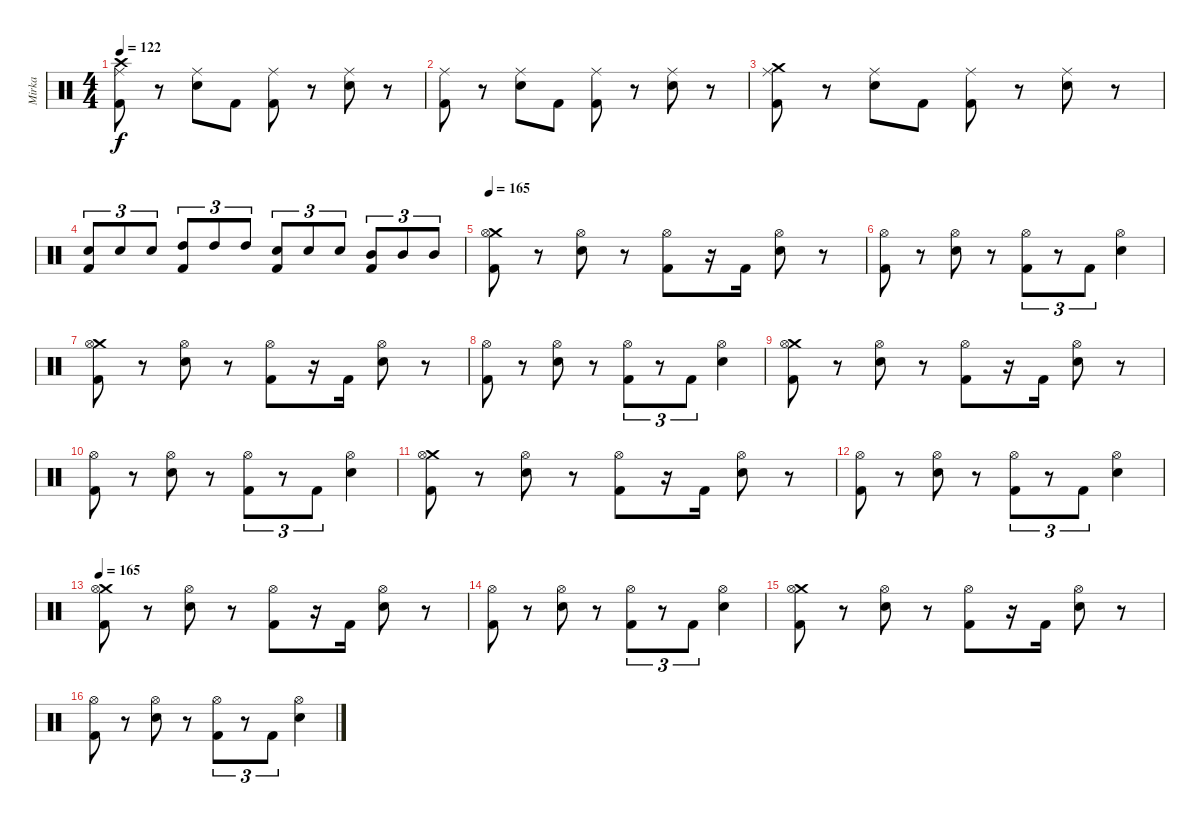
\track ("Mirka" "Mirka") {instrument percussion}
\staff {score}
\articulation defaults
\ts (4 4)
\tempo 122
\clef neutral
\ks c
("Crash high (hit)" "Ride (middle)" "Kick (hit) 2").8{dy f} r.8 ("Ride (middle)" "Electric Snare (hit)").8 "Kick (hit) 2".8 ("Ride (middle)" "Kick (hit) 2").8 r.8 ("Ride (middle)" "Electric Snare (hit)").8 r.8 |
("Ride (middle)" "Kick (hit) 2").8 r.8 ("Ride (middle)" "Electric Snare (hit)").8 "Kick (hit) 2".8 ("Ride (middle)" "Kick (hit) 2").8 r.8 ("Ride (middle)" "Electric Snare (hit)").8 r.8 |
("Crash medium (hit)" "Ride (middle)" "Kick (hit) 2").8 r.8 ("Ride (middle)" "Electric Snare (hit)").8 "Kick (hit) 2".8 ("Ride (middle)" "Kick (hit) 2").8 r.8 ("Ride (middle)" "Electric Snare (hit)").8 r.8 |
("Electric Snare (hit)" "Kick (hit) 2").8{tu (3 2)} "Electric Snare (hit)".8{tu (3 2)} "Electric Snare (hit)".8{tu (3 2)} ("High Tom (hit)" "Kick (hit) 2").8{tu (3 2)} "High Tom (hit)".8{tu (3 2)} "High Tom (hit)".8{tu (3 2)} ("Electric Snare (hit)" "Kick (hit) 2").8{tu (3 2)} "Electric Snare (hit)".8{tu (3 2)} "Electric Snare (hit)".8{tu (3 2)} ("Mid Tom (hit)" "Kick (hit) 2").8{tu (3 2)} "Mid Tom (hit)".8{tu (3 2)} "Mid Tom (hit)".8{tu (3 2)} |
\tempo 165
("Crash medium (hit)" "Hi-Hat (open)" "Kick (hit) 2").8 r.8 ("Hi-Hat (open)" "Electric Snare (hit)").8 r.8 ("Hi-Hat (open)" "Kick (hit) 2").8 r.16 "Kick (hit) 2".16 ("Electric Snare (hit)" "Hi-Hat (open)").8 r.8 |
("Hi-Hat (open)" "Kick (hit) 2").8 r.8 ("Hi-Hat (open)" "Electric Snare (hit)").8 r.8 ("Hi-Hat (open)" "Kick (hit) 2").8{tu (3 2)} r.8{tu (3 2)} "Kick (hit) 2".8{tu (3 2)} ("Hi-Hat (open)" "Electric Snare (hit)").4 |
("Crash medium (hit)" "Hi-Hat (open)" "Kick (hit) 2").8 r.8 ("Hi-Hat (open)" "Electric Snare (hit)").8 r.8 ("Hi-Hat (open)" "Kick (hit) 2").8 r.16 "Kick (hit) 2".16 ("Electric Snare (hit)" "Hi-Hat (open)").8 r.8 |
("Hi-Hat (open)" "Kick (hit) 2").8 r.8 ("Hi-Hat (open)" "Electric Snare (hit)").8 r.8 ("Hi-Hat (open)" "Kick (hit) 2").8{tu (3 2)} r.8{tu (3 2)} "Kick (hit) 2".8{tu (3 2)} ("Hi-Hat (open)" "Electric Snare (hit)").4 |
("Crash medium (hit)" "Hi-Hat (open)" "Kick (hit) 2").8 r.8 ("Hi-Hat (open)" "Electric Snare (hit)").8 r.8 ("Hi-Hat (open)" "Kick (hit) 2").8 r.16 "Kick (hit) 2".16 ("Electric Snare (hit)" "Hi-Hat (open)").8 r.8 |
("Hi-Hat (open)" "Kick (hit) 2").8 r.8 ("Hi-Hat (open)" "Electric Snare (hit)").8 r.8 ("Hi-Hat (open)" "Kick (hit) 2").8{tu (3 2)} r.8{tu (3 2)} "Kick (hit) 2".8{tu (3 2)} ("Hi-Hat (open)" "Electric Snare (hit)").4 |
("Crash medium (hit)" "Hi-Hat (open)" "Kick (hit) 2").8 r.8 ("Hi-Hat (open)" "Electric Snare (hit)").8 r.8 ("Hi-Hat (open)" "Kick (hit) 2").8 r.16 "Kick (hit) 2".16 ("Electric Snare (hit)" "Hi-Hat (open)").8 r.8 |
("Hi-Hat (open)" "Kick (hit) 2").8 r.8 ("Hi-Hat (open)" "Electric Snare (hit)").8 r.8 ("Hi-Hat (open)" "Kick (hit) 2").8{tu (3 2)} r.8{tu (3 2)} "Kick (hit) 2".8{tu (3 2)} ("Hi-Hat (open)" "Electric Snare (hit)").4 |
\tempo 165
("Crash medium (hit)" "Hi-Hat (open)" "Kick (hit) 2").8 r.8 ("Hi-Hat (open)" "Electric Snare (hit)").8 r.8 ("Hi-Hat (open)" "Kick (hit) 2").8 r.16 "Kick (hit) 2".16 ("Electric Snare (hit)" "Hi-Hat (open)").8 r.8 |
("Hi-Hat (open)" "Kick (hit) 2").8 r.8 ("Hi-Hat (open)" "Electric Snare (hit)").8 r.8 ("Hi-Hat (open)" "Kick (hit) 2").8{tu (3 2)} r.8{tu (3 2)} "Kick (hit) 2".8{tu (3 2)} ("Hi-Hat (open)" "Electric Snare (hit)").4 |
("Crash medium (hit)" "Hi-Hat (open)" "Kick (hit) 2").8 r.8 ("Hi-Hat (open)" "Electric Snare (hit)").8 r.8 ("Hi-Hat (open)" "Kick (hit) 2").8 r.16 "Kick (hit) 2".16 ("Electric Snare (hit)" "Hi-Hat (open)").8 r.8 |
("Hi-Hat (open)" "Kick (hit) 2").8 r.8 ("Hi-Hat (open)" "Electric Snare (hit)").8 r.8 ("Hi-Hat (open)" "Kick (hit) 2").8{tu (3 2)} r.8{tu (3 2)} "Kick (hit) 2".8{tu (3 2)} ("Hi-Hat (open)" "Electric Snare (hit)").4
